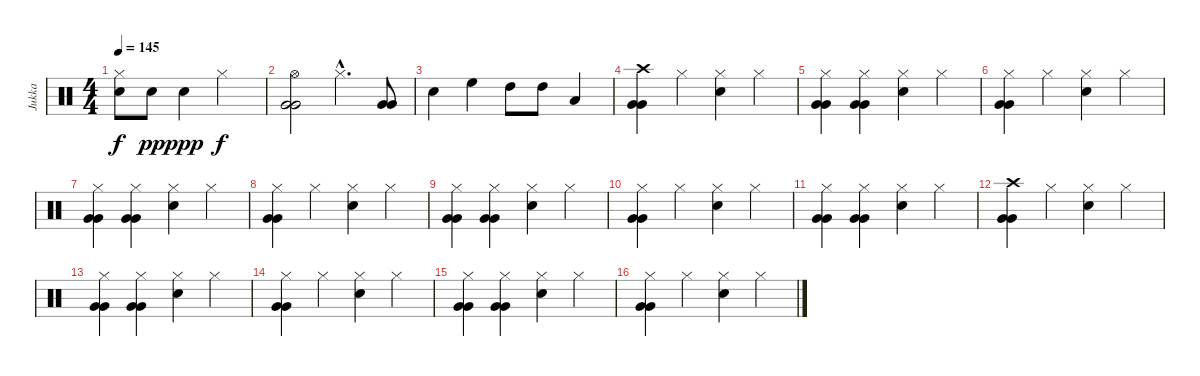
\track ("Jukka" "Jukka") {instrument percussion}
\staff {score}
\articulation defaults
\ts (4 4)
\tempo 145
\clef neutral
\ks c
("Hi-Hat (closed)" "Electric Snare (hit)").8{dy f} "Electric Snare (hit)".8{dy pp} "Electric Snare (hit)".4{dy ppp} "Hi-Hat (closed)".2{dy f} |
("Hi-Hat (open)" "Very Low Tom (hit)" "Very Low Tom (hit)").2 "Hi-Hat (closed)"{hac}.4{d} ("Very Low Tom (hit)" "Very Low Tom (hit)").8 |
"Electric Snare (hit)".4 "High Floor Tom (hit)".4 "High Tom (hit)".8 "High Tom (hit)".8 "Low Tom (hit)".4 |
("Crash high (hit)" "Very Low Tom (hit)" "Very Low Tom (hit)").4 "Hi-Hat (closed)".4 ("Hi-Hat (closed)" "Electric Snare (hit)").4 "Hi-Hat (closed)".4 |
("Hi-Hat (closed)" "Very Low Tom (hit)" "Very Low Tom (hit)").4 ("Hi-Hat (closed)" "Very Low Tom (hit)" "Very Low Tom (hit)").4 ("Hi-Hat (closed)" "Electric Snare (hit)").4 "Hi-Hat (closed)".4 |
("Hi-Hat (closed)" "Very Low Tom (hit)" "Very Low Tom (hit)").4 "Hi-Hat (closed)".4 ("Hi-Hat (closed)" "Electric Snare (hit)").4 "Hi-Hat (closed)".4 |
("Hi-Hat (closed)" "Very Low Tom (hit)" "Very Low Tom (hit)").4 ("Hi-Hat (closed)" "Very Low Tom (hit)" "Very Low Tom (hit)").4 ("Hi-Hat (closed)" "Electric Snare (hit)").4 "Hi-Hat (closed)".4 |
("Hi-Hat (closed)" "Very Low Tom (hit)" "Very Low Tom (hit)").4 "Hi-Hat (closed)".4 ("Hi-Hat (closed)" "Electric Snare (hit)").4 "Hi-Hat (closed)".4 |
("Hi-Hat (closed)" "Very Low Tom (hit)" "Very Low Tom (hit)").4 ("Hi-Hat (closed)" "Very Low Tom (hit)" "Very Low Tom (hit)").4 ("Hi-Hat (closed)" "Electric Snare (hit)").4 "Hi-Hat (closed)".4 |
("Hi-Hat (closed)" "Very Low Tom (hit)" "Very Low Tom (hit)").4 "Hi-Hat (closed)".4 ("Hi-Hat (closed)" "Electric Snare (hit)").4 "Hi-Hat (closed)".4 |
("Hi-Hat (closed)" "Very Low Tom (hit)" "Very Low Tom (hit)").4 ("Hi-Hat (closed)" "Very Low Tom (hit)" "Very Low Tom (hit)").4 ("Hi-Hat (closed)" "Electric Snare (hit)").4 "Hi-Hat (closed)".4 |
("Crash high (hit)" "Very Low Tom (hit)" "Very Low Tom (hit)").4 "Hi-Hat (closed)".4 ("Hi-Hat (closed)" "Electric Snare (hit)").4 "Hi-Hat (closed)".4 |
("Hi-Hat (closed)" "Very Low Tom (hit)" "Very Low Tom (hit)").4 ("Hi-Hat (closed)" "Very Low Tom (hit)" "Very Low Tom (hit)").4 ("Hi-Hat (closed)" "Electric Snare (hit)").4 "Hi-Hat (closed)".4 |
("Hi-Hat (closed)" "Very Low Tom (hit)" "Very Low Tom (hit)").4 "Hi-Hat (closed)".4 ("Hi-Hat (closed)" "Electric Snare (hit)").4 "Hi-Hat (closed)".4 |
("Hi-Hat (closed)" "Very Low Tom (hit)" "Very Low Tom (hit)").4 ("Hi-Hat (closed)" "Very Low Tom (hit)" "Very Low Tom (hit)").4 ("Hi-Hat (closed)" "Electric Snare (hit)").4 "Hi-Hat (closed)".4 |
("Hi-Hat (closed)" "Very Low Tom (hit)" "Very Low Tom (hit)").4 "Hi-Hat (closed)".4 ("Hi-Hat (closed)" "Electric Snare (hit)").4 "Hi-Hat (closed)".4
